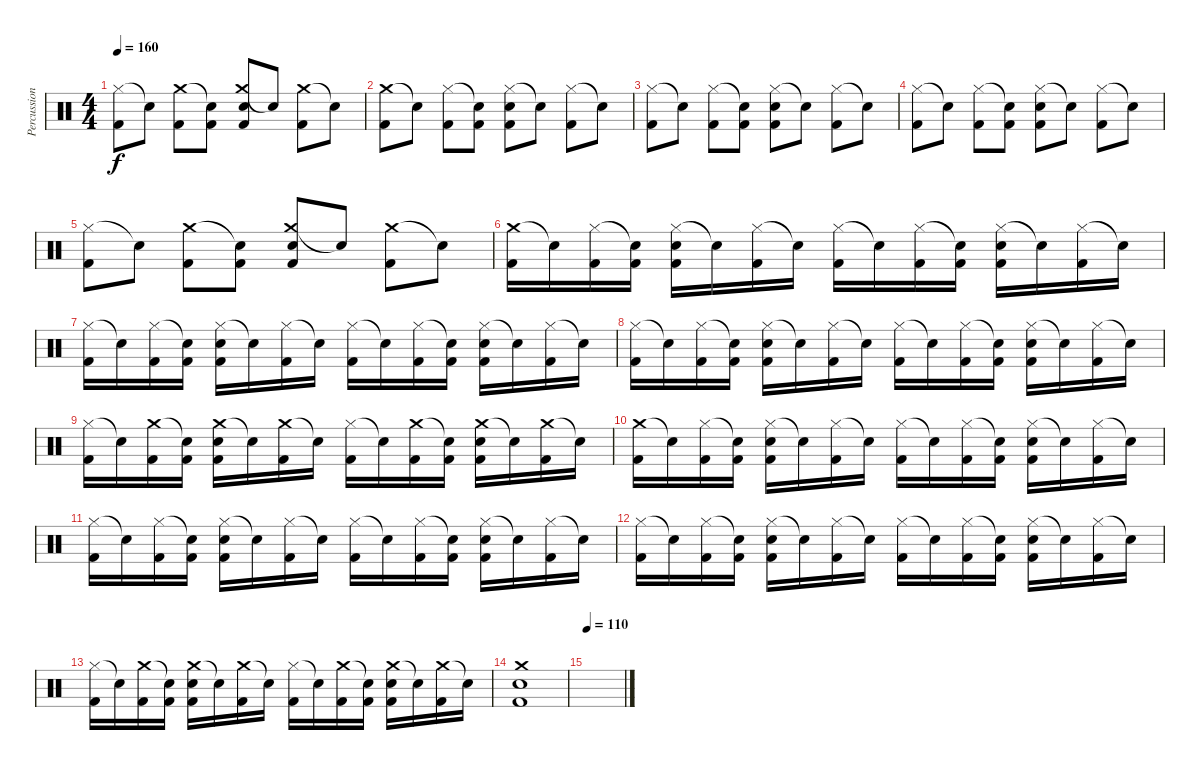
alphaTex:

\track ("Percussion" "Percussion") {instrument percussion}
\staff {score}
\articulation defaults
\ts (4 4)
\tempo 160
\clef neutral
\ks c
("Hi-Hat (closed)" "Kick (hit) 2").8{dy f} "Snare (hit)"{t}.8 ("Crash medium (hit)" "Kick (hit) 2").8 ("Snare (hit)"{t} "Kick (hit) 2").8 ("Crash medium (hit)" "Electric Snare (hit)" "Kick (hit) 2").8 "Snare (hit)"{t}.8 ("Crash medium (hit)" "Kick (hit) 2").8 "Snare (hit)"{t}.8 |
("Crash medium (hit)" "Kick (hit) 2").8 "Snare (hit)"{t}.8 ("Hi-Hat (closed)" "Kick (hit) 2").8 ("Snare (hit)"{t} "Kick (hit) 2").8 ("Hi-Hat (closed)" "Electric Snare (hit)" "Kick (hit) 2").8 "Snare (hit)"{t}.8 ("Hi-Hat (closed)" "Kick (hit) 2").8 "Snare (hit)"{t}.8 |
("Hi-Hat (closed)" "Kick (hit) 2").8 "Snare (hit)"{t}.8 ("Hi-Hat (closed)" "Kick (hit) 2").8 ("Snare (hit)"{t} "Kick (hit) 2").8 ("Hi-Hat (closed)" "Electric Snare (hit)" "Kick (hit) 2").8 "Snare (hit)"{t}.8 ("Hi-Hat (closed)" "Kick (hit) 2").8 "Snare (hit)"{t}.8 |
("Hi-Hat (closed)" "Kick (hit) 2").8 "Snare (hit)"{t}.8 ("Hi-Hat (closed)" "Kick (hit) 2").8 ("Snare (hit)"{t} "Kick (hit) 2").8 ("Hi-Hat (closed)" "Electric Snare (hit)" "Kick (hit) 2").8 "Snare (hit)"{t}.8 ("Hi-Hat (closed)" "Kick (hit) 2").8 "Snare (hit)"{t}.8 |
("Hi-Hat (closed)" "Kick (hit) 2").8 "Snare (hit)"{t}.8 ("Crash medium (hit)" "Kick (hit) 2").8 ("Snare (hit)"{t} "Kick (hit) 2").8 ("Crash medium (hit)" "Electric Snare (hit)" "Kick (hit) 2").8 "Snare (hit)"{t}.8 ("Crash medium (hit)" "Kick (hit) 2").8 "Snare (hit)"{t}.8 |
("Crash medium (hit)" "Kick (hit) 2").16 "Snare (hit)"{t}.16 ("Hi-Hat (closed)" "Kick (hit) 2").16 ("Snare (hit)"{t} "Kick (hit) 2").16 ("Hi-Hat (closed)" "Electric Snare (hit)" "Kick (hit) 2").16 "Snare (hit)"{t}.16 ("Hi-Hat (closed)" "Kick (hit) 2").16 "Snare (hit)"{t}.16 ("Hi-Hat (closed)" "Kick (hit) 2").16 "Snare (hit)"{t}.16 ("Hi-Hat (closed)" "Kick (hit) 2").16 ("Snare (hit)"{t} "Kick (hit) 2").16 ("Hi-Hat (closed)" "Electric Snare (hit)" "Kick (hit) 2").16 "Snare (hit)"{t}.16 ("Hi-Hat (closed)" "Kick (hit) 2").16 "Snare (hit)"{t}.16 |
("Hi-Hat (closed)" "Kick (hit) 2").16 "Snare (hit)"{t}.16 ("Hi-Hat (closed)" "Kick (hit) 2").16 ("Snare (hit)"{t} "Kick (hit) 2").16 ("Hi-Hat (closed)" "Electric Snare (hit)" "Kick (hit) 2").16 "Snare (hit)"{t}.16 ("Hi-Hat (closed)" "Kick (hit) 2").16 "Snare (hit)"{t}.16 ("Hi-Hat (closed)" "Kick (hit) 2").16 "Snare (hit)"{t}.16 ("Hi-Hat (closed)" "Kick (hit) 2").16 ("Snare (hit)"{t} "Kick (hit) 2").16 ("Hi-Hat (closed)" "Electric Snare (hit)" "Kick (hit) 2").16 "Snare (hit)"{t}.16 ("Hi-Hat (closed)" "Kick (hit) 2").16 "Snare (hit)"{t}.16 |
("Hi-Hat (closed)" "Kick (hit) 2").16 "Snare (hit)"{t}.16 ("Hi-Hat (closed)" "Kick (hit) 2").16 ("Snare (hit)"{t} "Kick (hit) 2").16 ("Hi-Hat (closed)" "Electric Snare (hit)" "Kick (hit) 2").16 "Snare (hit)"{t}.16 ("Hi-Hat (closed)" "Kick (hit) 2").16 "Snare (hit)"{t}.16 ("Hi-Hat (closed)" "Kick (hit) 2").16 "Snare (hit)"{t}.16 ("Hi-Hat (closed)" "Kick (hit) 2").16 ("Snare (hit)"{t} "Kick (hit) 2").16 ("Hi-Hat (closed)" "Electric Snare (hit)" "Kick (hit) 2").16 "Snare (hit)"{t}.16 ("Hi-Hat (closed)" "Kick (hit) 2").16 "Snare (hit)"{t}.16 |
("Hi-Hat (closed)" "Kick (hit) 2").16 "Snare (hit)"{t}.16 ("Crash medium (hit)" "Kick (hit) 2").16 ("Snare (hit)"{t} "Kick (hit) 2").16 ("Crash medium (hit)" "Electric Snare (hit)" "Kick (hit) 2").16 "Snare (hit)"{t}.16 ("Crash medium (hit)" "Kick (hit) 2").16 "Snare (hit)"{t}.16 ("Hi-Hat (closed)" "Kick (hit) 2").16 "Snare (hit)"{t}.16 ("Crash medium (hit)" "Kick (hit) 2").16 ("Snare (hit)"{t} "Kick (hit) 2").16 ("Crash medium (hit)" "Electric Snare (hit)" "Kick (hit) 2").16 "Snare (hit)"{t}.16 ("Crash medium (hit)" "Kick (hit) 2").16 "Snare (hit)"{t}.16 |
("Crash medium (hit)" "Kick (hit) 2").16 "Snare (hit)"{t}.16 ("Hi-Hat (closed)" "Kick (hit) 2").16 ("Snare (hit)"{t} "Kick (hit) 2").16 ("Hi-Hat (closed)" "Electric Snare (hit)" "Kick (hit) 2").16 "Snare (hit)"{t}.16 ("Hi-Hat (closed)" "Kick (hit) 2").16 "Snare (hit)"{t}.16 ("Hi-Hat (closed)" "Kick (hit) 2").16 "Snare (hit)"{t}.16 ("Hi-Hat (closed)" "Kick (hit) 2").16 ("Snare (hit)"{t} "Kick (hit) 2").16 ("Hi-Hat (closed)" "Electric Snare (hit)" "Kick (hit) 2").16 "Snare (hit)"{t}.16 ("Hi-Hat (closed)" "Kick (hit) 2").16 "Snare (hit)"{t}.16 |
("Hi-Hat (closed)" "Kick (hit) 2").16 "Snare (hit)"{t}.16 ("Hi-Hat (closed)" "Kick (hit) 2").16 ("Snare (hit)"{t} "Kick (hit) 2").16 ("Hi-Hat (closed)" "Electric Snare (hit)" "Kick (hit) 2").16 "Snare (hit)"{t}.16 ("Hi-Hat (closed)" "Kick (hit) 2").16 "Snare (hit)"{t}.16 ("Hi-Hat (closed)" "Kick (hit) 2").16 "Snare (hit)"{t}.16 ("Hi-Hat (closed)" "Kick (hit) 2").16 ("Snare (hit)"{t} "Kick (hit) 2").16 ("Hi-Hat (closed)" "Electric Snare (hit)" "Kick (hit) 2").16 "Snare (hit)"{t}.16 ("Hi-Hat (closed)" "Kick (hit) 2").16 "Snare (hit)"{t}.16 |
("Hi-Hat (closed)" "Kick (hit) 2").16 "Snare (hit)"{t}.16 ("Hi-Hat (closed)" "Kick (hit) 2").16 ("Snare (hit)"{t} "Kick (hit) 2").16 ("Hi-Hat (closed)" "Electric Snare (hit)" "Kick (hit) 2").16 "Snare (hit)"{t}.16 ("Hi-Hat (closed)" "Kick (hit) 2").16 "Snare (hit)"{t}.16 ("Hi-Hat (closed)" "Kick (hit) 2").16 "Snare (hit)"{t}.16 ("Hi-Hat (closed)" "Kick (hit) 2").16 ("Snare (hit)"{t} "Kick (hit) 2").16 ("Hi-Hat (closed)" "Electric Snare (hit)" "Kick (hit) 2").16 "Snare (hit)"{t}.16 ("Hi-Hat (closed)" "Kick (hit) 2").16 "Snare (hit)"{t}.16 |
("Hi-Hat (closed)" "Kick (hit) 2").16 "Snare (hit)"{t}.16 ("Crash medium (hit)" "Kick (hit) 2").16 ("Snare (hit)"{t} "Kick (hit) 2").16 ("Crash medium (hit)" "Electric Snare (hit)" "Kick (hit) 2").16 "Snare (hit)"{t}.16 ("Crash medium (hit)" "Kick (hit) 2").16 "Snare (hit)"{t}.16 ("Hi-Hat (closed)" "Kick (hit) 2").16 "Snare (hit)"{t}.16 ("Crash medium (hit)" "Kick (hit) 2").16 ("Snare (hit)"{t} "Kick (hit) 2").16 ("Crash medium (hit)" "Electric Snare (hit)" "Kick (hit) 2").16 "Snare (hit)"{t}.16 ("Crash medium (hit)" "Kick (hit) 2").16 "Snare (hit)"{t}.16 |
("Crash medium (hit)" "Electric Snare (hit)" "Kick (hit) 2").1 |
\tempo 110
